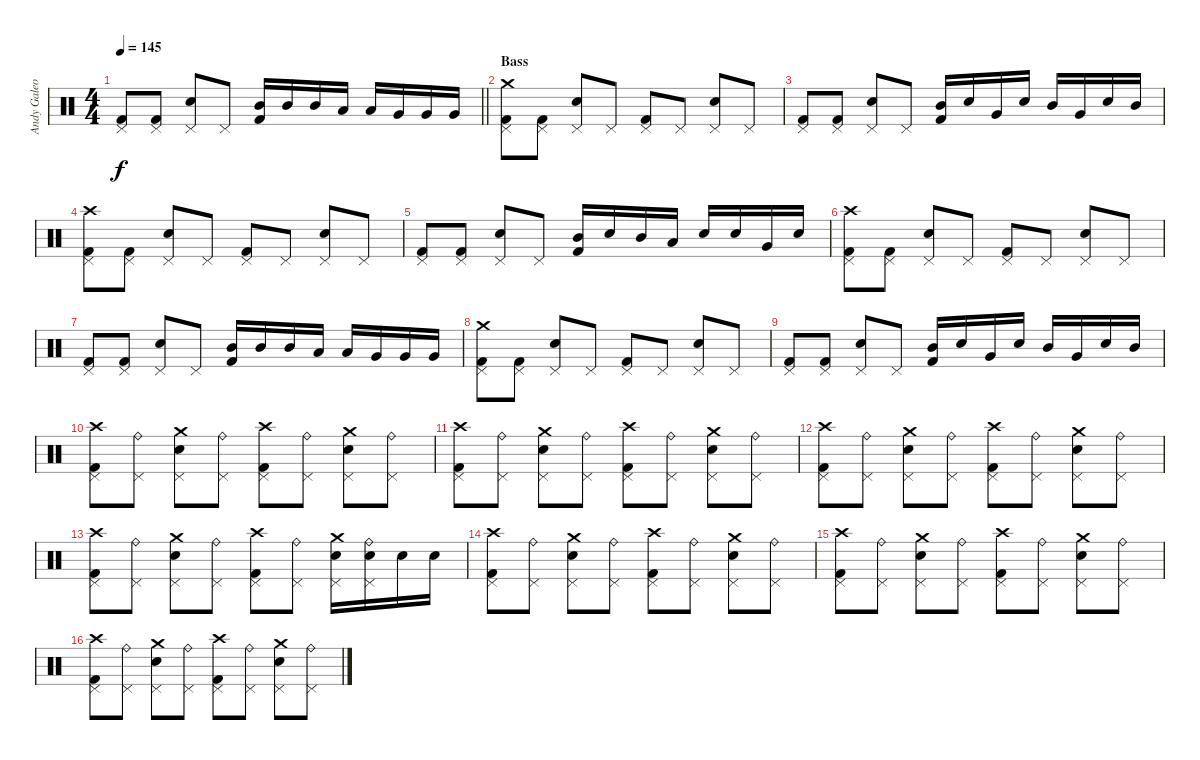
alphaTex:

\track ("Andy Galeon" "Andy Galeo") {instrument percussion}
\staff {score}
\articulation defaults
\ts (4 4)
\tempo 145
\clef neutral
\barLineRight lightlight
\ks c
("Kick (hit) 2" "Pedal Hi-Hat (hit)").8{dy f} ("Kick (hit) 2" "Pedal Hi-Hat (hit)").8 ("Electric Snare (hit)" "Pedal Hi-Hat (hit)").8 "Pedal Hi-Hat (hit)".8 ("Kick (hit) 2" "Mid Tom (hit)").16 "Mid Tom (hit)".16 "Mid Tom (hit)".16 "Low Tom (hit)".16 "Low Tom (hit)".16 "Very Low Tom (hit)".16 "Very Low Tom (hit)".16 "Very Low Tom (hit)".16 |
\section ("" "Bass")
("Kick (hit) 2" "Pedal Hi-Hat (hit)" "Crash medium (hit)").8 ("Kick (hit) 2" "Pedal Hi-Hat (hit)").8 ("Electric Snare (hit)" "Pedal Hi-Hat (hit)").8 "Pedal Hi-Hat (hit)".8 ("Kick (hit) 2" "Pedal Hi-Hat (hit)").8 "Pedal Hi-Hat (hit)".8 ("Electric Snare (hit)" "Pedal Hi-Hat (hit)").8 "Pedal Hi-Hat (hit)".8 |
("Kick (hit) 2" "Pedal Hi-Hat (hit)").8 ("Kick (hit) 2" "Pedal Hi-Hat (hit)").8 ("Electric Snare (hit)" "Pedal Hi-Hat (hit)").8 "Pedal Hi-Hat (hit)".8 ("Kick (hit) 2" "Mid Tom (hit)").16 "Electric Snare (hit)".16 "Very Low Tom (hit)".16 "Electric Snare (hit)".16 "Mid Tom (hit)".16 "Very Low Tom (hit)".16 "Electric Snare (hit)".16 "Mid Tom (hit)".16 |
("Kick (hit) 2" "Pedal Hi-Hat (hit)" "Crash high (hit)").8 ("Kick (hit) 2" "Pedal Hi-Hat (hit)").8 ("Electric Snare (hit)" "Pedal Hi-Hat (hit)").8 "Pedal Hi-Hat (hit)".8 ("Kick (hit) 2" "Pedal Hi-Hat (hit)").8 "Pedal Hi-Hat (hit)".8 ("Electric Snare (hit)" "Pedal Hi-Hat (hit)").8 "Pedal Hi-Hat (hit)".8 |
("Kick (hit) 2" "Pedal Hi-Hat (hit)").8 ("Kick (hit) 2" "Pedal Hi-Hat (hit)").8 ("Electric Snare (hit)" "Pedal Hi-Hat (hit)").8 "Pedal Hi-Hat (hit)".8 ("Kick (hit) 2" "Mid Tom (hit)").16 "Snare (hit) 2".16 "Mid Tom (hit)".16 "Low Tom (hit)".16 "Snare (hit) 2".16 "Snare (hit) 2".16 "Very Low Tom (hit)".16 "Snare (hit) 2".16 |
("Kick (hit) 2" "Pedal Hi-Hat (hit)" "Crash high (hit)").8 ("Kick (hit) 2" "Pedal Hi-Hat (hit)").8 ("Electric Snare (hit)" "Pedal Hi-Hat (hit)").8 "Pedal Hi-Hat (hit)".8 ("Kick (hit) 2" "Pedal Hi-Hat (hit)").8 "Pedal Hi-Hat (hit)".8 ("Electric Snare (hit)" "Pedal Hi-Hat (hit)").8 "Pedal Hi-Hat (hit)".8 |
("Kick (hit) 2" "Pedal Hi-Hat (hit)").8 ("Kick (hit) 2" "Pedal Hi-Hat (hit)").8 ("Electric Snare (hit)" "Pedal Hi-Hat (hit)").8 "Pedal Hi-Hat (hit)".8 ("Kick (hit) 2" "Mid Tom (hit)").16 "Mid Tom (hit)".16 "Mid Tom (hit)".16 "Low Tom (hit)".16 "Low Tom (hit)".16 "Very Low Tom (hit)".16 "Very Low Tom (hit)".16 "Very Low Tom (hit)".16 |
("Kick (hit) 2" "Pedal Hi-Hat (hit)" "Crash medium (hit)").8 ("Kick (hit) 2" "Pedal Hi-Hat (hit)").8 ("Electric Snare (hit)" "Pedal Hi-Hat (hit)").8 "Pedal Hi-Hat (hit)".8 ("Kick (hit) 2" "Pedal Hi-Hat (hit)").8 "Pedal Hi-Hat (hit)".8 ("Electric Snare (hit)" "Pedal Hi-Hat (hit)").8 "Pedal Hi-Hat (hit)".8 |
("Kick (hit) 2" "Pedal Hi-Hat (hit)").8 ("Kick (hit) 2" "Pedal Hi-Hat (hit)").8 ("Electric Snare (hit)" "Pedal Hi-Hat (hit)").8 "Pedal Hi-Hat (hit)".8 ("Kick (hit) 2" "Mid Tom (hit)").16 "Electric Snare (hit)".16 "Very Low Tom (hit)".16 "Electric Snare (hit)".16 "Mid Tom (hit)".16 "Very Low Tom (hit)".16 "Electric Snare (hit)".16 "Mid Tom (hit)".16 |
("Kick (hit) 2" "Pedal Hi-Hat (hit)" "Crash high (hit)").8 ("Pedal Hi-Hat (hit)" "Ride (bell)").8 ("Electric Snare (hit)" "Pedal Hi-Hat (hit)" "Crash medium (hit)").8 ("Pedal Hi-Hat (hit)" "Ride (bell)").8 ("Kick (hit) 2" "Pedal Hi-Hat (hit)" "Crash high (hit)").8 ("Pedal Hi-Hat (hit)" "Ride (bell)").8 ("Electric Snare (hit)" "Pedal Hi-Hat (hit)" "Crash medium (hit)").8 ("Pedal Hi-Hat (hit)" "Ride (bell)").8 |
("Kick (hit) 2" "Pedal Hi-Hat (hit)" "Crash high (hit)").8 ("Pedal Hi-Hat (hit)" "Ride (bell)").8 ("Electric Snare (hit)" "Pedal Hi-Hat (hit)" "Crash medium (hit)").8 ("Pedal Hi-Hat (hit)" "Ride (bell)").8 ("Kick (hit) 2" "Pedal Hi-Hat (hit)" "Crash high (hit)").8 ("Pedal Hi-Hat (hit)" "Ride (bell)").8 ("Electric Snare (hit)" "Pedal Hi-Hat (hit)" "Crash medium (hit)").8 ("Pedal Hi-Hat (hit)" "Ride (bell)").8 |
("Kick (hit) 2" "Pedal Hi-Hat (hit)" "Crash high (hit)").8 ("Pedal Hi-Hat (hit)" "Ride (bell)").8 ("Electric Snare (hit)" "Pedal Hi-Hat (hit)" "Crash medium (hit)").8 ("Pedal Hi-Hat (hit)" "Ride (bell)").8 ("Kick (hit) 2" "Pedal Hi-Hat (hit)" "Crash high (hit)").8 ("Pedal Hi-Hat (hit)" "Ride (bell)").8 ("Electric Snare (hit)" "Pedal Hi-Hat (hit)" "Crash medium (hit)").8 ("Pedal Hi-Hat (hit)" "Ride (bell)").8 |
("Kick (hit) 2" "Pedal Hi-Hat (hit)" "Crash high (hit)").8 ("Pedal Hi-Hat (hit)" "Ride (bell)").8 ("Electric Snare (hit)" "Pedal Hi-Hat (hit)" "Crash medium (hit)").8 ("Pedal Hi-Hat (hit)" "Ride (bell)").8 ("Kick (hit) 2" "Pedal Hi-Hat (hit)" "Crash high (hit)").8 ("Pedal Hi-Hat (hit)" "Ride (bell)").8 ("Electric Snare (hit)" "Pedal Hi-Hat (hit)" "Crash medium (hit)").16 ("Electric Snare (hit)" "Pedal Hi-Hat (hit)" "Ride (bell)").16 "Electric Snare (hit)".16 "Electric Snare (hit)".16 |
("Kick (hit) 2" "Pedal Hi-Hat (hit)" "Crash high (hit)").8 ("Pedal Hi-Hat (hit)" "Ride (bell)").8 ("Electric Snare (hit)" "Pedal Hi-Hat (hit)" "Crash medium (hit)").8 ("Pedal Hi-Hat (hit)" "Ride (bell)").8 ("Kick (hit) 2" "Pedal Hi-Hat (hit)" "Crash high (hit)").8 ("Pedal Hi-Hat (hit)" "Ride (bell)").8 ("Electric Snare (hit)" "Pedal Hi-Hat (hit)" "Crash medium (hit)").8 ("Pedal Hi-Hat (hit)" "Ride (bell)").8 |
("Kick (hit) 2" "Pedal Hi-Hat (hit)" "Crash high (hit)").8 ("Pedal Hi-Hat (hit)" "Ride (bell)").8 ("Electric Snare (hit)" "Pedal Hi-Hat (hit)" "Crash medium (hit)").8 ("Pedal Hi-Hat (hit)" "Ride (bell)").8 ("Kick (hit) 2" "Pedal Hi-Hat (hit)" "Crash high (hit)").8 ("Pedal Hi-Hat (hit)" "Ride (bell)").8 ("Electric Snare (hit)" "Pedal Hi-Hat (hit)" "Crash medium (hit)").8 ("Pedal Hi-Hat (hit)" "Ride (bell)").8 |
("Kick (hit) 2" "Pedal Hi-Hat (hit)" "Crash high (hit)").8 ("Pedal Hi-Hat (hit)" "Ride (bell)").8 ("Electric Snare (hit)" "Pedal Hi-Hat (hit)" "Crash medium (hit)").8 ("Pedal Hi-Hat (hit)" "Ride (bell)").8 ("Kick (hit) 2" "Pedal Hi-Hat (hit)" "Crash high (hit)").8 ("Pedal Hi-Hat (hit)" "Ride (bell)").8 ("Electric Snare (hit)" "Pedal Hi-Hat (hit)" "Crash medium (hit)").8 ("Pedal Hi-Hat (hit)" "Ride (bell)").8
